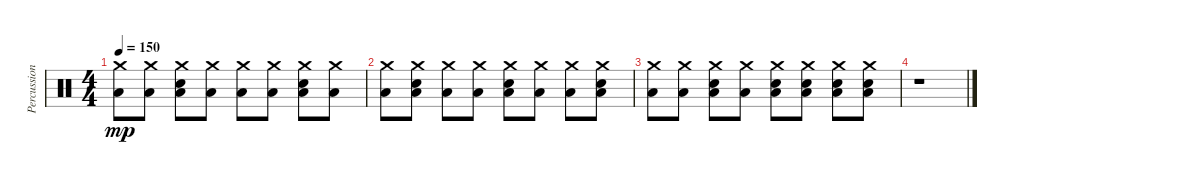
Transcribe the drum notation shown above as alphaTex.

\track ("Percussions" "Percussion") {instrument percussion}
\staff {score}
\articulation defaults
\ts (4 4)
\tempo 150
\clef neutral
\ks c
("Low Floor Tom (hit)" "Crash medium (hit)").8{dy mp} ("Low Floor Tom (hit)" "Crash medium (hit)").8 ("Low Floor Tom (hit)" "Snare (hit) 2" "Crash medium (hit)").8 ("Low Floor Tom (hit)" "Crash medium (hit)").8 ("Low Floor Tom (hit)" "Crash medium (hit)").8 ("Low Floor Tom (hit)" "Crash medium (hit)").8 ("Low Floor Tom (hit)" "Snare (hit) 2" "Crash medium (hit)").8 ("Low Floor Tom (hit)" "Crash medium (hit)").8 |
("Low Floor Tom (hit)" "Crash medium (hit)").8 ("Low Floor Tom (hit)" "Snare (hit) 2" "Crash medium (hit)").8 ("Low Floor Tom (hit)" "Crash medium (hit)").8 ("Low Floor Tom (hit)" "Crash medium (hit)").8 ("Low Floor Tom (hit)" "Snare (hit) 2" "Crash medium (hit)").8 ("Low Floor Tom (hit)" "Crash medium (hit)").8 ("Low Floor Tom (hit)" "Crash medium (hit)").8 ("Low Floor Tom (hit)" "Snare (hit) 2" "Crash medium (hit)").8 |
("Low Floor Tom (hit)" "Crash medium (hit)").8 ("Low Floor Tom (hit)" "Crash medium (hit)").8 ("Low Floor Tom (hit)" "Snare (hit) 2" "Crash medium (hit)").8 ("Low Floor Tom (hit)" "Crash medium (hit)").8 ("Low Floor Tom (hit)" "Snare (hit) 2" "Crash medium (hit)").8 ("Low Floor Tom (hit)" "Snare (hit) 2" "Crash medium (hit)").8 ("Low Floor Tom (hit)" "Snare (hit) 2" "Crash medium (hit)").8 ("Low Floor Tom (hit)" "Snare (hit) 2" "Crash medium (hit)").8 |
r.1
